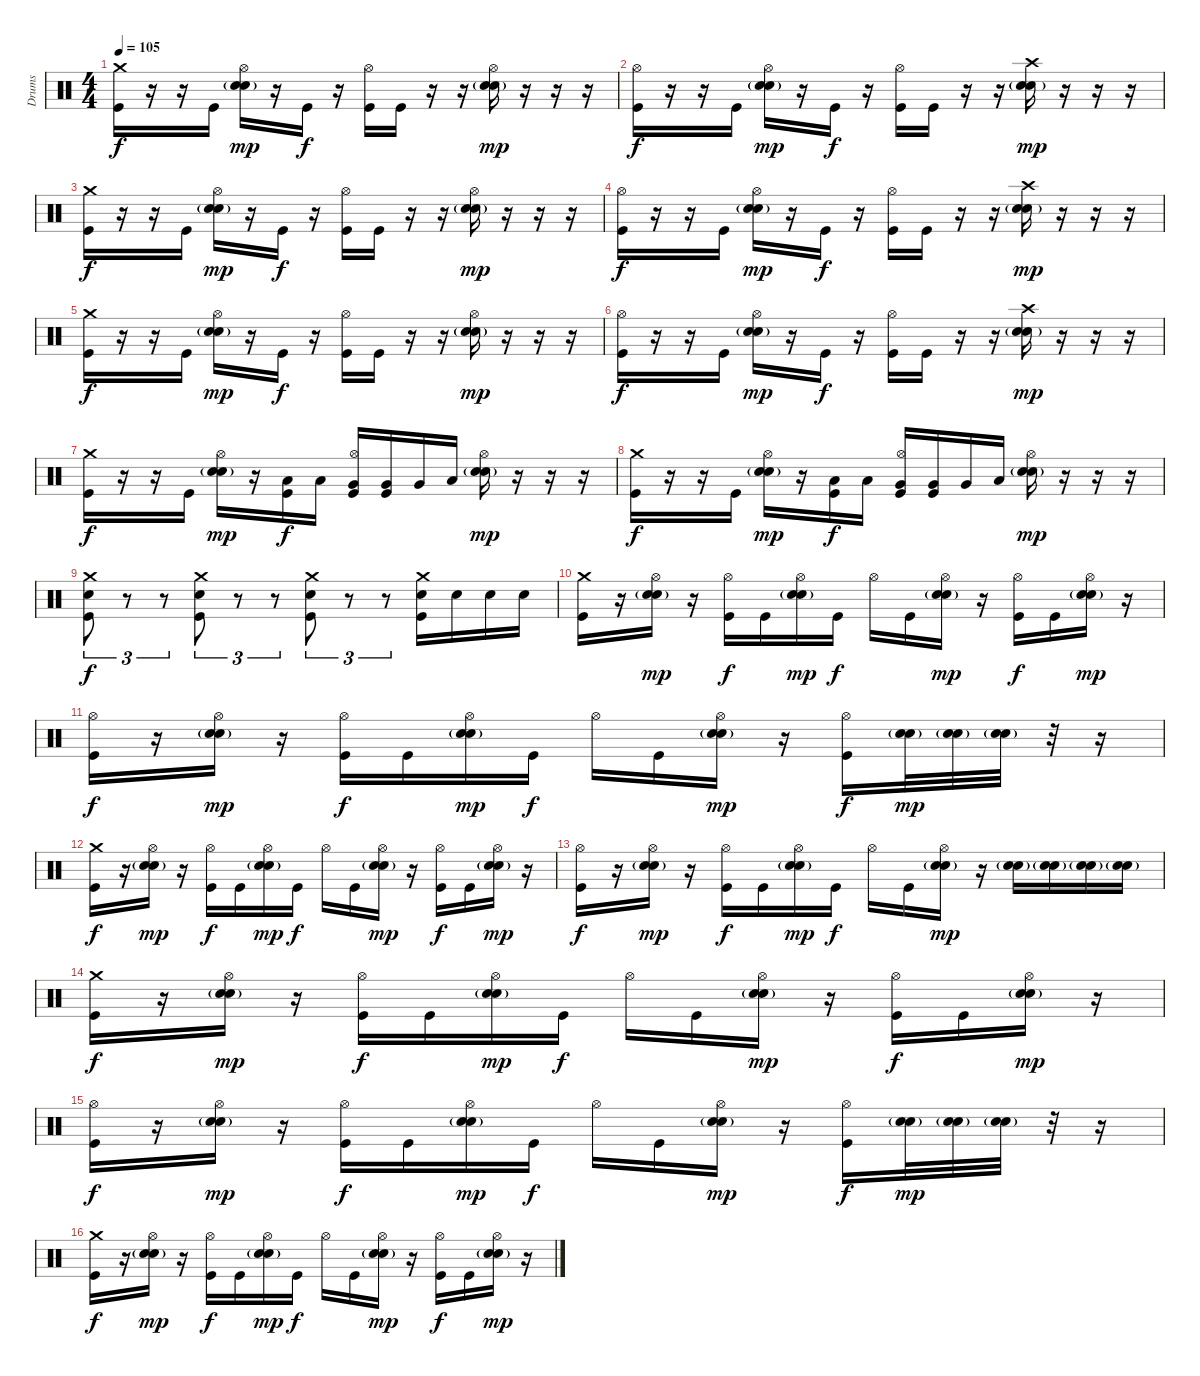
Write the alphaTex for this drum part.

\track ("Drums" "Drums") {instrument percussion}
\staff {score}
\articulation defaults
\ts (4 4)
\tempo 105
\clef neutral
\ks c
("Crash medium (hit)" "Kick (hit)").16{dy f} r.16 r.16 "Kick (hit)".16 ("Hi-Hat (open)" "Snare (hit) 2"{g} "Snare (hit) 2").16{dy mp} r.16 "Kick (hit)".16{dy f} r.16 ("Hi-Hat (open)" "Kick (hit)").16 "Kick (hit)".16 r.16 r.16 ("Hi-Hat (open)" "Snare (hit) 2"{g} "Snare (hit) 2").16{dy mp} r.16 r.16 r.16 |
("Hi-Hat (open)" "Kick (hit)").16{dy f} r.16 r.16 "Kick (hit)".16 ("Hi-Hat (open)" "Snare (hit) 2"{g} "Snare (hit) 2").16{dy mp} r.16 "Kick (hit)".16{dy f} r.16 ("Hi-Hat (open)" "Kick (hit)").16 "Kick (hit)".16 r.16 r.16 ("Crash high (hit)" "Snare (hit) 2"{g} "Snare (hit) 2").16{dy mp} r.16 r.16 r.16 |
("Crash medium (hit)" "Kick (hit)").16{dy f} r.16 r.16 "Kick (hit)".16 ("Hi-Hat (open)" "Snare (hit) 2"{g} "Snare (hit) 2").16{dy mp} r.16 "Kick (hit)".16{dy f} r.16 ("Hi-Hat (open)" "Kick (hit)").16 "Kick (hit)".16 r.16 r.16 ("Hi-Hat (open)" "Snare (hit) 2"{g} "Snare (hit) 2").16{dy mp} r.16 r.16 r.16 |
("Hi-Hat (open)" "Kick (hit)").16{dy f} r.16 r.16 "Kick (hit)".16 ("Hi-Hat (open)" "Snare (hit) 2"{g} "Snare (hit) 2").16{dy mp} r.16 "Kick (hit)".16{dy f} r.16 ("Hi-Hat (open)" "Kick (hit)").16 "Kick (hit)".16 r.16 r.16 ("Crash high (hit)" "Snare (hit) 2"{g} "Snare (hit) 2").16{dy mp} r.16 r.16 r.16 |
("Crash medium (hit)" "Kick (hit)").16{dy f} r.16 r.16 "Kick (hit)".16 ("Hi-Hat (open)" "Snare (hit) 2"{g} "Snare (hit) 2").16{dy mp} r.16 "Kick (hit)".16{dy f} r.16 ("Hi-Hat (open)" "Kick (hit)").16 "Kick (hit)".16 r.16 r.16 ("Hi-Hat (open)" "Snare (hit) 2"{g} "Snare (hit) 2").16{dy mp} r.16 r.16 r.16 |
("Hi-Hat (open)" "Kick (hit)").16{dy f} r.16 r.16 "Kick (hit)".16 ("Hi-Hat (open)" "Snare (hit) 2"{g} "Snare (hit) 2").16{dy mp} r.16 "Kick (hit)".16{dy f} r.16 ("Hi-Hat (open)" "Kick (hit)").16 "Kick (hit)".16 r.16 r.16 ("Crash high (hit)" "Snare (hit) 2"{g} "Snare (hit) 2").16{dy mp} r.16 r.16 r.16 |
("Crash medium (hit)" "Kick (hit)").16{dy f} r.16 r.16 "Kick (hit)".16 ("Hi-Hat (open)" "Snare (hit) 2"{g} "Snare (hit) 2").16{dy mp} r.16 ("Low Tom (hit)" "Kick (hit)").16{dy f} "Low Tom (hit)".16 ("Hi-Hat (open)" "Very Low Tom (hit)" "Kick (hit)").16 ("Very Low Tom (hit)" "Kick (hit)").16 "Very Low Tom (hit)".16 "Low Tom (hit)".16 ("Hi-Hat (open)" "Snare (hit) 2"{g} "Snare (hit) 2").16{dy mp} r.16 r.16 r.16 |
("Crash medium (hit)" "Kick (hit)").16{dy f} r.16 r.16 "Kick (hit)".16 ("Hi-Hat (open)" "Snare (hit) 2"{g} "Snare (hit) 2").16{dy mp} r.16 ("Low Tom (hit)" "Kick (hit)").16{dy f} "Low Tom (hit)".16 ("Hi-Hat (open)" "Very Low Tom (hit)" "Kick (hit)").16 ("Very Low Tom (hit)" "Kick (hit)").16 "Very Low Tom (hit)".16 "Low Tom (hit)".16 ("Hi-Hat (open)" "Snare (hit) 2"{g} "Snare (hit) 2").16{dy mp} r.16 r.16 r.16 |
("Crash medium (hit)" "Snare (hit) 2" "Kick (hit)").8{tu (3 2) dy f} r.8{tu (3 2)} r.8{tu (3 2)} ("Crash medium (hit)" "Snare (hit) 2" "Kick (hit)").8{tu (3 2)} r.8{tu (3 2)} r.8{tu (3 2)} ("Crash medium (hit)" "Snare (hit) 2" "Kick (hit)").8{tu (3 2)} r.8{tu (3 2)} r.8{tu (3 2)} ("Crash medium (hit)" "Snare (hit) 2" "Kick (hit)").16 "Snare (hit) 2".16 "Snare (hit) 2".16 "Snare (hit) 2".16 |
("Crash medium (hit)" "Kick (hit)").16 r.16 ("Hi-Hat (open)" "Snare (hit) 2"{g} "Snare (hit) 2").16{dy mp} r.16 ("Hi-Hat (open)" "Kick (hit)").16{dy f} "Kick (hit)".16 ("Hi-Hat (open)" "Snare (hit) 2"{g} "Snare (hit) 2").16{dy mp} "Kick (hit)".16{dy f} "Hi-Hat (open)".16 "Kick (hit)".16 ("Hi-Hat (open)" "Snare (hit) 2"{g} "Snare (hit) 2").16{dy mp} r.16 ("Hi-Hat (open)" "Kick (hit)").16{dy f} "Kick (hit)".16 ("Hi-Hat (open)" "Snare (hit) 2"{g} "Snare (hit) 2").16{dy mp} r.16 |
("Hi-Hat (open)" "Kick (hit)").16{dy f} r.16 ("Hi-Hat (open)" "Snare (hit) 2"{g} "Snare (hit) 2").16{dy mp} r.16 ("Hi-Hat (open)" "Kick (hit)").16{dy f} "Kick (hit)".16 ("Hi-Hat (open)" "Snare (hit) 2"{g} "Snare (hit) 2").16{dy mp} "Kick (hit)".16{dy f} "Hi-Hat (open)".16 "Kick (hit)".16 ("Hi-Hat (open)" "Snare (hit) 2"{g} "Snare (hit) 2").16{dy mp} r.16 ("Hi-Hat (open)" "Kick (hit)").16{dy f} ("Snare (hit) 2"{g} "Snare (hit) 2").32{dy mp} ("Snare (hit) 2"{g} "Snare (hit) 2").32 ("Snare (hit) 2"{g} "Snare (hit) 2").32 r.32 r.16 |
("Crash medium (hit)" "Kick (hit)").16{dy f} r.16 ("Hi-Hat (open)" "Snare (hit) 2"{g} "Snare (hit) 2").16{dy mp} r.16 ("Hi-Hat (open)" "Kick (hit)").16{dy f} "Kick (hit)".16 ("Hi-Hat (open)" "Snare (hit) 2"{g} "Snare (hit) 2").16{dy mp} "Kick (hit)".16{dy f} "Hi-Hat (open)".16 "Kick (hit)".16 ("Hi-Hat (open)" "Snare (hit) 2"{g} "Snare (hit) 2").16{dy mp} r.16 ("Hi-Hat (open)" "Kick (hit)").16{dy f} "Kick (hit)".16 ("Hi-Hat (open)" "Snare (hit) 2"{g} "Snare (hit) 2").16{dy mp} r.16 |
("Hi-Hat (open)" "Kick (hit)").16{dy f} r.16 ("Hi-Hat (open)" "Snare (hit) 2"{g} "Snare (hit) 2").16{dy mp} r.16 ("Hi-Hat (open)" "Kick (hit)").16{dy f} "Kick (hit)".16 ("Hi-Hat (open)" "Snare (hit) 2"{g} "Snare (hit) 2").16{dy mp} "Kick (hit)".16{dy f} "Hi-Hat (open)".16 "Kick (hit)".16 ("Hi-Hat (open)" "Snare (hit) 2"{g} "Snare (hit) 2").16{dy mp} r.16 ("Snare (hit) 2"{g} "Snare (hit) 2").16 ("Snare (hit) 2"{g} "Snare (hit) 2").16 ("Snare (hit) 2"{g} "Snare (hit) 2").16 ("Snare (hit) 2"{g} "Snare (hit) 2").16 |
("Crash medium (hit)" "Kick (hit)").16{dy f} r.16 ("Hi-Hat (open)" "Snare (hit) 2"{g} "Snare (hit) 2").16{dy mp} r.16 ("Hi-Hat (open)" "Kick (hit)").16{dy f} "Kick (hit)".16 ("Hi-Hat (open)" "Snare (hit) 2"{g} "Snare (hit) 2").16{dy mp} "Kick (hit)".16{dy f} "Hi-Hat (open)".16 "Kick (hit)".16 ("Hi-Hat (open)" "Snare (hit) 2"{g} "Snare (hit) 2").16{dy mp} r.16 ("Hi-Hat (open)" "Kick (hit)").16{dy f} "Kick (hit)".16 ("Hi-Hat (open)" "Snare (hit) 2"{g} "Snare (hit) 2").16{dy mp} r.16 |
("Hi-Hat (open)" "Kick (hit)").16{dy f} r.16 ("Hi-Hat (open)" "Snare (hit) 2"{g} "Snare (hit) 2").16{dy mp} r.16 ("Hi-Hat (open)" "Kick (hit)").16{dy f} "Kick (hit)".16 ("Hi-Hat (open)" "Snare (hit) 2"{g} "Snare (hit) 2").16{dy mp} "Kick (hit)".16{dy f} "Hi-Hat (open)".16 "Kick (hit)".16 ("Hi-Hat (open)" "Snare (hit) 2"{g} "Snare (hit) 2").16{dy mp} r.16 ("Hi-Hat (open)" "Kick (hit)").16{dy f} ("Snare (hit) 2"{g} "Snare (hit) 2").32{dy mp} ("Snare (hit) 2"{g} "Snare (hit) 2").32 ("Snare (hit) 2"{g} "Snare (hit) 2").32 r.32 r.16 |
("Crash medium (hit)" "Kick (hit)").16{dy f} r.16 ("Hi-Hat (open)" "Snare (hit) 2"{g} "Snare (hit) 2").16{dy mp} r.16 ("Hi-Hat (open)" "Kick (hit)").16{dy f} "Kick (hit)".16 ("Hi-Hat (open)" "Snare (hit) 2"{g} "Snare (hit) 2").16{dy mp} "Kick (hit)".16{dy f} "Hi-Hat (open)".16 "Kick (hit)".16 ("Hi-Hat (open)" "Snare (hit) 2"{g} "Snare (hit) 2").16{dy mp} r.16 ("Hi-Hat (open)" "Kick (hit)").16{dy f} "Kick (hit)".16 ("Hi-Hat (open)" "Snare (hit) 2"{g} "Snare (hit) 2").16{dy mp} r.16
